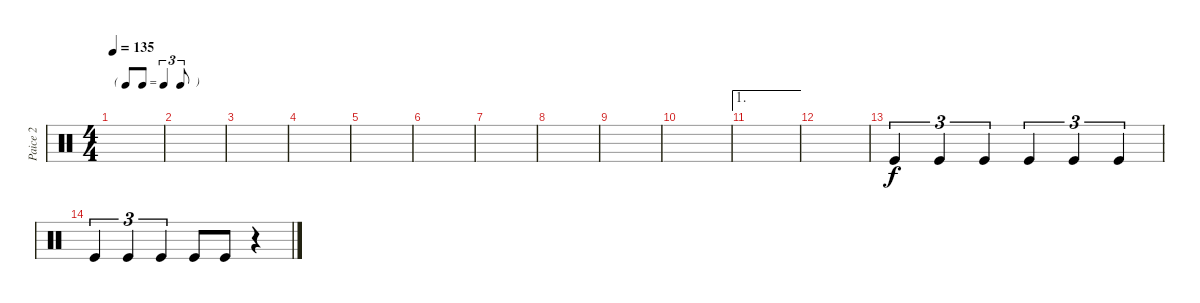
\track ("Paice 2" "Paice 2") {instrument percussion}
\staff {score}
\articulation defaults
\ts (4 4)
\tf triplet8th
\tempo 135
\clef neutral
\ks c
|
|
|
|
|
|
|
|
|
|
\ae 1
|
|
"Kick (hit)".4{tu (3 2)} "Kick (hit)".4{tu (3 2)} "Kick (hit)".4{tu (3 2)} "Kick (hit)".4{tu (3 2)} "Kick (hit)".4{tu (3 2)} "Kick (hit)".4{tu (3 2)} |
"Kick (hit)".4{tu (3 2)} "Kick (hit)".4{tu (3 2)} "Kick (hit)".4{tu (3 2)} "Kick (hit)".8 "Kick (hit)".8 r.4
